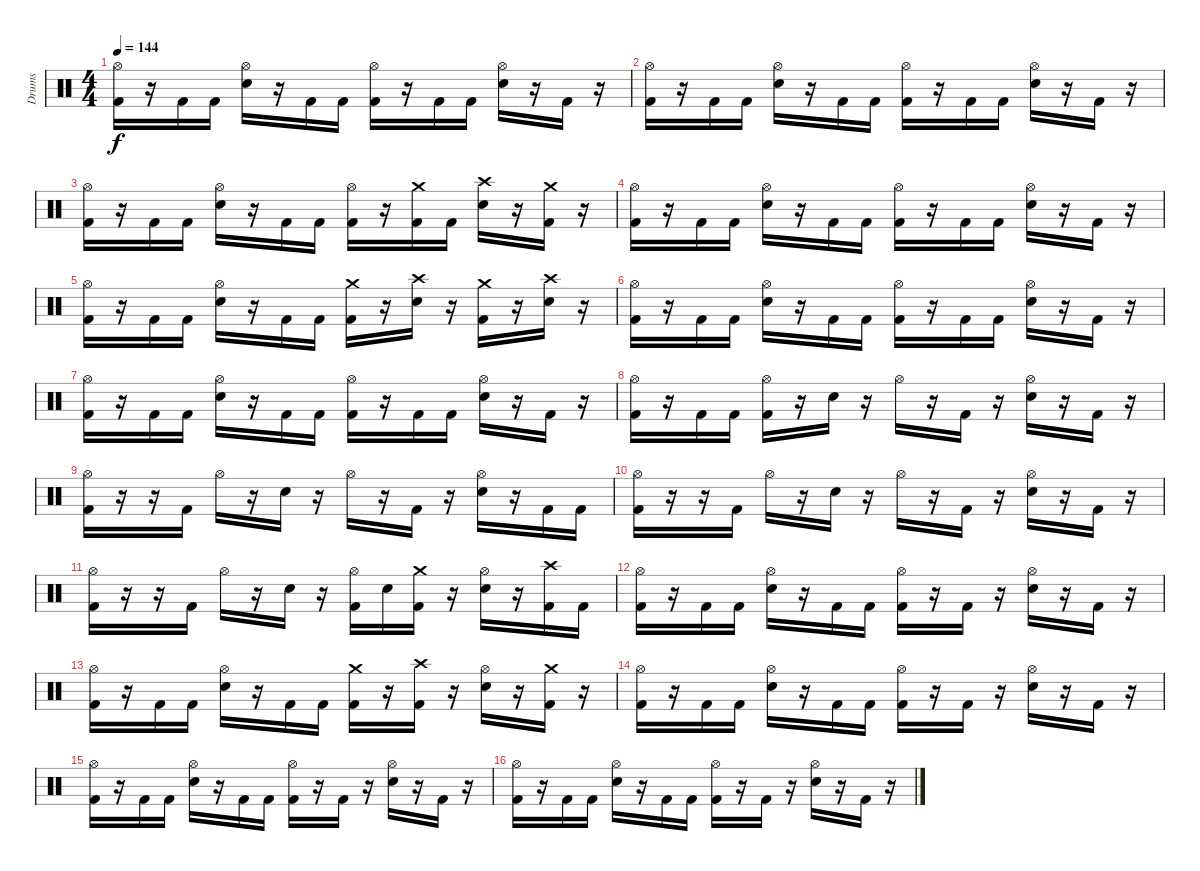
\track ("Drums" "Drums") {instrument percussion}
\staff {score}
\articulation defaults
\ts (4 4)
\tempo 144
\clef neutral
\ks c
("Hi-Hat (open)" "Kick (hit) 2").16{dy f} r.16 "Kick (hit) 2".16 "Kick (hit) 2".16 ("Hi-Hat (open)" "Snare (hit) 2").16 r.16 "Kick (hit) 2".16 "Kick (hit) 2".16 ("Hi-Hat (open)" "Kick (hit) 2").16 r.16 "Kick (hit) 2".16 "Kick (hit) 2".16 ("Hi-Hat (open)" "Snare (hit) 2").16 r.16 "Kick (hit) 2".16 r.16 |
("Hi-Hat (open)" "Kick (hit) 2").16 r.16 "Kick (hit) 2".16 "Kick (hit) 2".16 ("Hi-Hat (open)" "Snare (hit) 2").16 r.16 "Kick (hit) 2".16 "Kick (hit) 2".16 ("Hi-Hat (open)" "Kick (hit) 2").16 r.16 "Kick (hit) 2".16 "Kick (hit) 2".16 ("Hi-Hat (open)" "Snare (hit) 2").16 r.16 "Kick (hit) 2".16 r.16 |
("Hi-Hat (open)" "Kick (hit) 2").16 r.16 "Kick (hit) 2".16 "Kick (hit) 2".16 ("Hi-Hat (open)" "Snare (hit) 2").16 r.16 "Kick (hit) 2".16 "Kick (hit) 2".16 ("Hi-Hat (open)" "Kick (hit) 2").16 r.16 ("Crash medium (hit)" "Kick (hit) 2").16 "Kick (hit) 2".16 ("Crash high (hit)" "Snare (hit) 2").16 r.16 ("Crash medium (hit)" "Kick (hit) 2").16 r.16 |
("Hi-Hat (open)" "Kick (hit) 2").16 r.16 "Kick (hit) 2".16 "Kick (hit) 2".16 ("Hi-Hat (open)" "Snare (hit) 2").16 r.16 "Kick (hit) 2".16 "Kick (hit) 2".16 ("Hi-Hat (open)" "Kick (hit) 2").16 r.16 "Kick (hit) 2".16 "Kick (hit) 2".16 ("Hi-Hat (open)" "Snare (hit) 2").16 r.16 "Kick (hit) 2".16 r.16 |
("Hi-Hat (open)" "Kick (hit) 2").16 r.16 "Kick (hit) 2".16 "Kick (hit) 2".16 ("Hi-Hat (open)" "Snare (hit) 2").16 r.16 "Kick (hit) 2".16 "Kick (hit) 2".16 ("Crash medium (hit)" "Kick (hit) 2").16 r.16 ("Crash high (hit)" "Snare (hit) 2").16 r.16 ("Crash medium (hit)" "Kick (hit) 2").16 r.16 ("Crash high (hit)" "Snare (hit) 2").16 r.16 |
("Hi-Hat (open)" "Kick (hit) 2").16 r.16 "Kick (hit) 2".16 "Kick (hit) 2".16 ("Hi-Hat (open)" "Snare (hit) 2").16 r.16 "Kick (hit) 2".16 "Kick (hit) 2".16 ("Hi-Hat (open)" "Kick (hit) 2").16 r.16 "Kick (hit) 2".16 "Kick (hit) 2".16 ("Hi-Hat (open)" "Snare (hit) 2").16 r.16 "Kick (hit) 2".16 r.16 |
("Hi-Hat (open)" "Kick (hit) 2").16 r.16 "Kick (hit) 2".16 "Kick (hit) 2".16 ("Hi-Hat (open)" "Snare (hit) 2").16 r.16 "Kick (hit) 2".16 "Kick (hit) 2".16 ("Hi-Hat (open)" "Kick (hit) 2").16 r.16 "Kick (hit) 2".16 "Kick (hit) 2".16 ("Hi-Hat (open)" "Snare (hit) 2").16 r.16 "Kick (hit) 2".16 r.16 |
("Hi-Hat (open)" "Kick (hit) 2").16 r.16 "Kick (hit) 2".16 "Kick (hit) 2".16 ("Hi-Hat (open)" "Kick (hit) 2").16 r.16 "Snare (hit) 2".16 r.16 "Hi-Hat (open)".16 r.16 "Kick (hit) 2".16 r.16 ("Hi-Hat (open)" "Snare (hit) 2").16 r.16 "Kick (hit) 2".16 r.16 |
("Hi-Hat (open)" "Kick (hit) 2").16 r.16 r.16 "Kick (hit) 2".16 "Hi-Hat (open)".16 r.16 "Snare (hit) 2".16 r.16 "Hi-Hat (open)".16 r.16 "Kick (hit) 2".16 r.16 ("Hi-Hat (open)" "Snare (hit) 2").16 r.16 "Kick (hit) 2".16 "Kick (hit) 2".16 |
("Hi-Hat (open)" "Kick (hit) 2").16 r.16 r.16 "Kick (hit) 2".16 "Hi-Hat (open)".16 r.16 "Snare (hit) 2".16 r.16 "Hi-Hat (open)".16 r.16 "Kick (hit) 2".16 r.16 ("Hi-Hat (open)" "Snare (hit) 2").16 r.16 "Kick (hit) 2".16 r.16 |
("Hi-Hat (open)" "Kick (hit) 2").16 r.16 r.16 "Kick (hit) 2".16 "Hi-Hat (open)".16 r.16 "Snare (hit) 2".16 r.16 ("Hi-Hat (open)" "Kick (hit) 2").16 "Snare (hit) 2".16 ("Crash medium (hit)" "Kick (hit) 2").16 r.16 ("Hi-Hat (open)" "Snare (hit) 2").16 r.16 ("Crash high (hit)" "Kick (hit) 2").16 "Kick (hit) 2".16 |
("Hi-Hat (open)" "Kick (hit) 2").16 r.16 "Kick (hit) 2".16 "Kick (hit) 2".16 ("Hi-Hat (open)" "Snare (hit) 2").16 r.16 "Kick (hit) 2".16 "Kick (hit) 2".16 ("Hi-Hat (open)" "Kick (hit) 2").16 r.16 "Kick (hit) 2".16 r.16 ("Hi-Hat (open)" "Snare (hit) 2").16 r.16 "Kick (hit) 2".16 r.16 |
("Hi-Hat (open)" "Kick (hit) 2").16 r.16 "Kick (hit) 2".16 "Kick (hit) 2".16 ("Hi-Hat (open)" "Snare (hit) 2").16 r.16 "Kick (hit) 2".16 "Kick (hit) 2".16 ("Crash medium (hit)" "Kick (hit) 2").16 r.16 ("Crash high (hit)" "Kick (hit) 2").16 r.16 ("Hi-Hat (open)" "Snare (hit) 2").16 r.16 ("Crash medium (hit)" "Kick (hit) 2").16 r.16 |
("Hi-Hat (open)" "Kick (hit) 2").16 r.16 "Kick (hit) 2".16 "Kick (hit) 2".16 ("Hi-Hat (open)" "Snare (hit) 2").16 r.16 "Kick (hit) 2".16 "Kick (hit) 2".16 ("Hi-Hat (open)" "Kick (hit) 2").16 r.16 "Kick (hit) 2".16 r.16 ("Hi-Hat (open)" "Snare (hit) 2").16 r.16 "Kick (hit) 2".16 r.16 |
("Hi-Hat (open)" "Kick (hit) 2").16 r.16 "Kick (hit) 2".16 "Kick (hit) 2".16 ("Hi-Hat (open)" "Snare (hit) 2").16 r.16 "Kick (hit) 2".16 "Kick (hit) 2".16 ("Hi-Hat (open)" "Kick (hit) 2").16 r.16 "Kick (hit) 2".16 r.16 ("Hi-Hat (open)" "Snare (hit) 2").16 r.16 "Kick (hit) 2".16 r.16 |
("Hi-Hat (open)" "Kick (hit) 2").16 r.16 "Kick (hit) 2".16 "Kick (hit) 2".16 ("Hi-Hat (open)" "Snare (hit) 2").16 r.16 "Kick (hit) 2".16 "Kick (hit) 2".16 ("Hi-Hat (open)" "Kick (hit) 2").16 r.16 "Kick (hit) 2".16 r.16 ("Hi-Hat (open)" "Snare (hit) 2").16 r.16 "Kick (hit) 2".16 r.16
